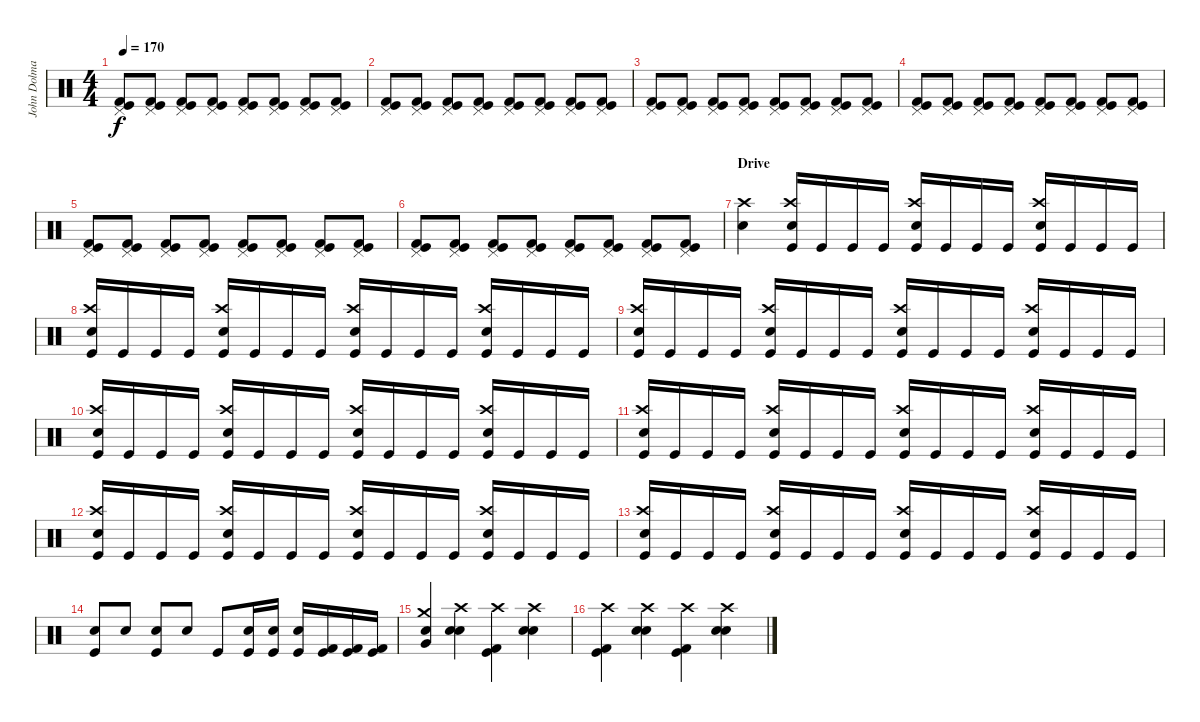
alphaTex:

\track ("John Dolmayan" "John Dolma") {instrument percussion}
\staff {score}
\articulation defaults
\ts (4 4)
\tempo 170
\clef neutral
\ks c
("Pedal Hi-Hat (hit)" "Kick (hit)" "Kick (hit) 2").8{dy f} ("Pedal Hi-Hat (hit)" "Kick (hit)" "Kick (hit) 2").8 ("Pedal Hi-Hat (hit)" "Kick (hit)" "Kick (hit) 2").8 ("Pedal Hi-Hat (hit)" "Kick (hit)" "Kick (hit) 2").8 ("Pedal Hi-Hat (hit)" "Kick (hit)" "Kick (hit) 2").8 ("Pedal Hi-Hat (hit)" "Kick (hit)" "Kick (hit) 2").8 ("Pedal Hi-Hat (hit)" "Kick (hit)" "Kick (hit) 2").8 ("Pedal Hi-Hat (hit)" "Kick (hit)" "Kick (hit) 2").8 |
("Pedal Hi-Hat (hit)" "Kick (hit)" "Kick (hit) 2").8 ("Pedal Hi-Hat (hit)" "Kick (hit)" "Kick (hit) 2").8 ("Pedal Hi-Hat (hit)" "Kick (hit)" "Kick (hit) 2").8 ("Pedal Hi-Hat (hit)" "Kick (hit)" "Kick (hit) 2").8 ("Pedal Hi-Hat (hit)" "Kick (hit)" "Kick (hit) 2").8 ("Pedal Hi-Hat (hit)" "Kick (hit)" "Kick (hit) 2").8 ("Pedal Hi-Hat (hit)" "Kick (hit)" "Kick (hit) 2").8 ("Pedal Hi-Hat (hit)" "Kick (hit)" "Kick (hit) 2").8 |
("Pedal Hi-Hat (hit)" "Kick (hit)" "Kick (hit) 2").8 ("Pedal Hi-Hat (hit)" "Kick (hit)" "Kick (hit) 2").8 ("Pedal Hi-Hat (hit)" "Kick (hit)" "Kick (hit) 2").8 ("Pedal Hi-Hat (hit)" "Kick (hit)" "Kick (hit) 2").8 ("Pedal Hi-Hat (hit)" "Kick (hit)" "Kick (hit) 2").8 ("Pedal Hi-Hat (hit)" "Kick (hit)" "Kick (hit) 2").8 ("Pedal Hi-Hat (hit)" "Kick (hit)" "Kick (hit) 2").8 ("Pedal Hi-Hat (hit)" "Kick (hit)" "Kick (hit) 2").8 |
("Pedal Hi-Hat (hit)" "Kick (hit)" "Kick (hit) 2").8 ("Pedal Hi-Hat (hit)" "Kick (hit)" "Kick (hit) 2").8 ("Pedal Hi-Hat (hit)" "Kick (hit)" "Kick (hit) 2").8 ("Pedal Hi-Hat (hit)" "Kick (hit)" "Kick (hit) 2").8 ("Pedal Hi-Hat (hit)" "Kick (hit)" "Kick (hit) 2").8 ("Pedal Hi-Hat (hit)" "Kick (hit)" "Kick (hit) 2").8 ("Pedal Hi-Hat (hit)" "Kick (hit)" "Kick (hit) 2").8 ("Pedal Hi-Hat (hit)" "Kick (hit)" "Kick (hit) 2").8 |
("Pedal Hi-Hat (hit)" "Kick (hit)" "Kick (hit) 2").8 ("Pedal Hi-Hat (hit)" "Kick (hit)" "Kick (hit) 2").8 ("Pedal Hi-Hat (hit)" "Kick (hit)" "Kick (hit) 2").8 ("Pedal Hi-Hat (hit)" "Kick (hit)" "Kick (hit) 2").8 ("Pedal Hi-Hat (hit)" "Kick (hit)" "Kick (hit) 2").8 ("Pedal Hi-Hat (hit)" "Kick (hit)" "Kick (hit) 2").8 ("Pedal Hi-Hat (hit)" "Kick (hit)" "Kick (hit) 2").8 ("Pedal Hi-Hat (hit)" "Kick (hit)" "Kick (hit) 2").8 |
("Pedal Hi-Hat (hit)" "Kick (hit)" "Kick (hit) 2").8 ("Pedal Hi-Hat (hit)" "Kick (hit)" "Kick (hit) 2").8 ("Pedal Hi-Hat (hit)" "Kick (hit)" "Kick (hit) 2").8 ("Pedal Hi-Hat (hit)" "Kick (hit)" "Kick (hit) 2").8 ("Pedal Hi-Hat (hit)" "Kick (hit)" "Kick (hit) 2").8 ("Pedal Hi-Hat (hit)" "Kick (hit)" "Kick (hit) 2").8 ("Pedal Hi-Hat (hit)" "Kick (hit)" "Kick (hit) 2").8 ("Pedal Hi-Hat (hit)" "Kick (hit)" "Kick (hit) 2").8 |
\section ("" "Drive")
("Crash high (hit)" "Snare (hit) 2").4 ("Kick (hit)" "Snare (hit) 2" "Crash high (hit)").16 "Kick (hit)".16 "Kick (hit)".16 "Kick (hit)".16 ("Kick (hit)" "Snare (hit) 2" "Crash high (hit)").16 "Kick (hit)".16 "Kick (hit)".16 "Kick (hit)".16 ("Kick (hit)" "Snare (hit) 2" "Crash high (hit)").16 "Kick (hit)".16 "Kick (hit)".16 "Kick (hit)".16 |
("Kick (hit)" "Snare (hit) 2" "Crash high (hit)").16 "Kick (hit)".16 "Kick (hit)".16 "Kick (hit)".16 ("Kick (hit)" "Snare (hit) 2" "Crash high (hit)").16 "Kick (hit)".16 "Kick (hit)".16 "Kick (hit)".16 ("Kick (hit)" "Snare (hit) 2" "Crash high (hit)").16 "Kick (hit)".16 "Kick (hit)".16 "Kick (hit)".16 ("Kick (hit)" "Snare (hit) 2" "Crash high (hit)").16 "Kick (hit)".16 "Kick (hit)".16 "Kick (hit)".16 |
("Kick (hit)" "Snare (hit) 2" "Crash high (hit)").16 "Kick (hit)".16 "Kick (hit)".16 "Kick (hit)".16 ("Kick (hit)" "Snare (hit) 2" "Crash high (hit)").16 "Kick (hit)".16 "Kick (hit)".16 "Kick (hit)".16 ("Kick (hit)" "Snare (hit) 2" "Crash high (hit)").16 "Kick (hit)".16 "Kick (hit)".16 "Kick (hit)".16 ("Kick (hit)" "Snare (hit) 2" "Crash high (hit)").16 "Kick (hit)".16 "Kick (hit)".16 "Kick (hit)".16 |
("Kick (hit)" "Snare (hit) 2" "Crash high (hit)").16 "Kick (hit)".16 "Kick (hit)".16 "Kick (hit)".16 ("Kick (hit)" "Snare (hit) 2" "Crash high (hit)").16 "Kick (hit)".16 "Kick (hit)".16 "Kick (hit)".16 ("Kick (hit)" "Snare (hit) 2" "Crash high (hit)").16 "Kick (hit)".16 "Kick (hit)".16 "Kick (hit)".16 ("Kick (hit)" "Snare (hit) 2" "Crash high (hit)").16 "Kick (hit)".16 "Kick (hit)".16 "Kick (hit)".16 |
("Kick (hit)" "Snare (hit) 2" "Crash high (hit)").16 "Kick (hit)".16 "Kick (hit)".16 "Kick (hit)".16 ("Kick (hit)" "Snare (hit) 2" "Crash high (hit)").16 "Kick (hit)".16 "Kick (hit)".16 "Kick (hit)".16 ("Kick (hit)" "Snare (hit) 2" "Crash high (hit)").16 "Kick (hit)".16 "Kick (hit)".16 "Kick (hit)".16 ("Kick (hit)" "Snare (hit) 2" "Crash high (hit)").16 "Kick (hit)".16 "Kick (hit)".16 "Kick (hit)".16 |
("Kick (hit)" "Snare (hit) 2" "Crash high (hit)").16 "Kick (hit)".16 "Kick (hit)".16 "Kick (hit)".16 ("Kick (hit)" "Snare (hit) 2" "Crash high (hit)").16 "Kick (hit)".16 "Kick (hit)".16 "Kick (hit)".16 ("Kick (hit)" "Snare (hit) 2" "Crash high (hit)").16 "Kick (hit)".16 "Kick (hit)".16 "Kick (hit)".16 ("Kick (hit)" "Snare (hit) 2" "Crash high (hit)").16 "Kick (hit)".16 "Kick (hit)".16 "Kick (hit)".16 |
("Kick (hit)" "Snare (hit) 2" "Crash high (hit)").16 "Kick (hit)".16 "Kick (hit)".16 "Kick (hit)".16 ("Kick (hit)" "Snare (hit) 2" "Crash high (hit)").16 "Kick (hit)".16 "Kick (hit)".16 "Kick (hit)".16 ("Kick (hit)" "Snare (hit) 2" "Crash high (hit)").16 "Kick (hit)".16 "Kick (hit)".16 "Kick (hit)".16 ("Kick (hit)" "Snare (hit) 2" "Crash high (hit)").16 "Kick (hit)".16 "Kick (hit)".16 "Kick (hit)".16 |
("Electric Snare (hit)" "Kick (hit)").8 "Snare (hit) 2".8 ("Electric Snare (hit)" "Kick (hit)").8 "Snare (hit) 2".8 "Kick (hit)".8 ("Snare (hit) 2" "Kick (hit)").16 ("Snare (hit) 2" "Kick (hit)").16 ("Electric Snare (hit)" "Kick (hit)").16 ("Kick (hit)" "Kick (hit) 2").16 ("Kick (hit)" "Kick (hit) 2").16 ("Kick (hit)" "Kick (hit) 2").16 |
("Crash medium (hit)" "Very Low Tom (hit)" "Snare (hit) 2").4 ("Crash high (hit)" "Snare (hit) 2" "Electric Snare (hit)").4 ("Crash high (hit)" "Kick (hit) 2" "Kick (hit)").4 ("Crash high (hit)" "Snare (hit) 2" "Electric Snare (hit)").4 |
("Crash high (hit)" "Kick (hit) 2" "Kick (hit)").4 ("Crash high (hit)" "Snare (hit) 2" "Electric Snare (hit)").4 ("Crash high (hit)" "Kick (hit) 2" "Kick (hit)").4 ("Crash high (hit)" "Snare (hit) 2" "Electric Snare (hit)").4
